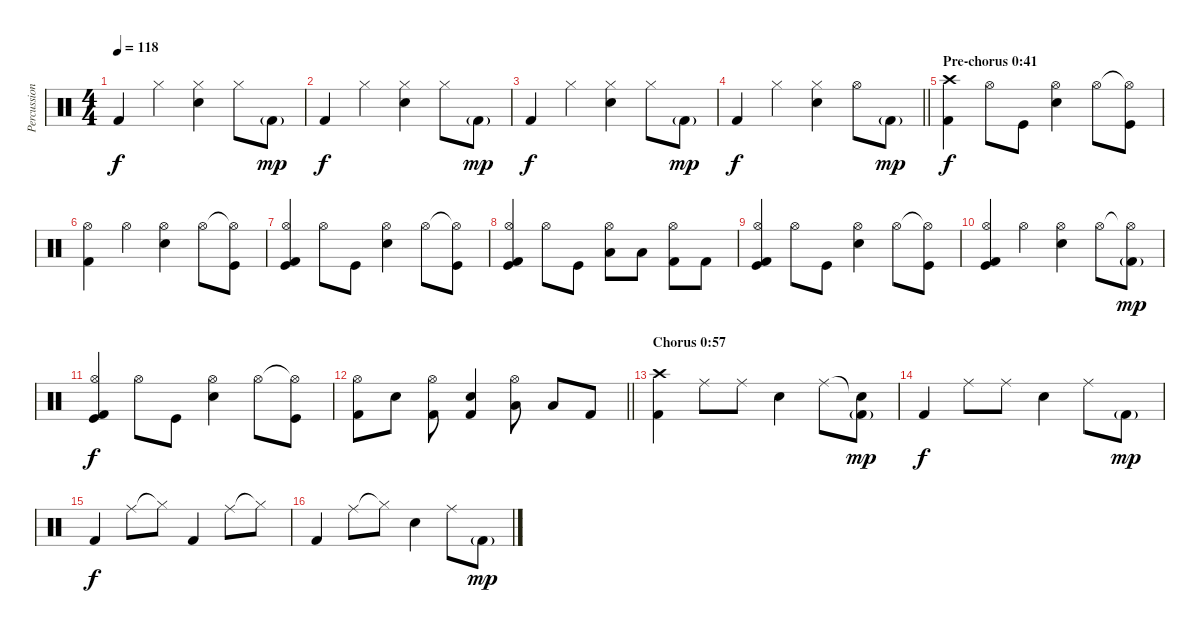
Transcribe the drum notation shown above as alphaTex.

\track ("Percussion" "Percussion") {instrument percussion}
\staff {score}
\articulation defaults
\ts (4 4)
\tempo 118
\clef neutral
\ks c "Kick (hit) 2".4{dy f} "Hi-Hat (closed)".4
("Hi-Hat (closed)" "Electric Snare (hit)").4 "Hi-Hat (closed)".8 "Kick (hit) 2"{g}.8{dy mp} |
"Kick (hit) 2".4{dy f} "Hi-Hat (closed)".4 ("Hi-Hat (closed)" "Electric Snare (hit)").4 "Hi-Hat (closed)".8 "Kick (hit) 2"{g}.8{dy mp} |
"Kick (hit) 2".4{dy f} "Hi-Hat (closed)".4 ("Hi-Hat (closed)" "Electric Snare (hit)").4 "Hi-Hat (closed)".8 "Kick (hit) 2"{g}.8{dy mp} |
\barLineRight lightlight "Kick (hit) 2".4{dy f} "Hi-Hat (closed)".4
("Hi-Hat (closed)" "Electric Snare (hit)").4 "Hi-Hat (open)".8 "Kick (hit) 2"{g}.8{dy mp} |
\section ("" "Pre-chorus 0:41")
("Crash high (hit)" "Kick (hit) 2").4{dy f} "Hi-Hat (open)".8 "Kick (hit)".8 ("Hi-Hat (open)" "Electric Snare (hit)").4 "Hi-Hat (open)".8 ("Hi-Hat (open)"{t} "Kick (hit)").8 |
("Hi-Hat (open)" "Kick (hit) 2").4 "Hi-Hat (open)".4 ("Hi-Hat (open)" "Electric Snare (hit)").4 "Hi-Hat (open)".8 ("Hi-Hat (open)"{t} "Kick (hit)").8 |
("Hi-Hat (open)" "Kick (hit)" "Kick (hit) 2").4 "Hi-Hat (open)".8 "Kick (hit)".8 ("Hi-Hat (open)" "Electric Snare (hit)").4 "Hi-Hat (open)".8 ("Hi-Hat (open)"{t} "Kick (hit)").8 |
("Hi-Hat (open)" "Kick (hit)" "Kick (hit) 2").4 "Hi-Hat (open)".8 "Kick (hit)".8 ("Hi-Hat (open)" "Low Floor Tom (hit)").8 "Low Floor Tom (hit)".8 ("Hi-Hat (open)" "Kick (hit) 2").8 "Kick (hit) 2".8 |
("Hi-Hat (open)" "Kick (hit)" "Kick (hit) 2").4 "Hi-Hat (open)".8 "Kick (hit)".8 ("Hi-Hat (open)" "Electric Snare (hit)").4 "Hi-Hat (open)".8 ("Hi-Hat (open)"{t} "Kick (hit)").8 |
("Hi-Hat (open)" "Kick (hit)" "Kick (hit) 2").4 "Hi-Hat (open)".4 ("Hi-Hat (open)" "Electric Snare (hit)").4 "Hi-Hat (open)".8 ("Hi-Hat (open)"{t} "Kick (hit) 2"{g}).8{dy mp} |
("Hi-Hat (open)" "Kick (hit)" "Kick (hit) 2").4{dy f} "Hi-Hat (open)".8 "Kick (hit)".8 ("Hi-Hat (open)" "Electric Snare (hit)").4 "Hi-Hat (open)".8 ("Hi-Hat (open)"{t} "Kick (hit)").8 |
\barLineRight lightlight
("Hi-Hat (open)" "Kick (hit) 2").8 "Electric Snare (hit)".8 ("Hi-Hat (open)" "Kick (hit) 2").8 ("Electric Snare (hit)" "Kick (hit) 2").4 ("Hi-Hat (open)" "Low Floor Tom (hit)").8 "Low Floor Tom (hit)".8 "Kick (hit) 2".8 |
\section ("" "Chorus 0:57")
("Crash high (hit)" "Kick (hit) 2").4 "Ride (middle)".8 "Ride (middle)".8 "Electric Snare (hit)".4 "Ride (middle)".8 ("Snare (hit)"{t} "Kick (hit) 2"{g}).8{dy mp} |
"Kick (hit) 2".4{dy f} "Ride (middle)".8 "Ride (middle)".8 "Electric Snare (hit)".4 "Ride (middle)".8 "Kick (hit) 2"{g}.8{dy mp} |
"Kick (hit) 2".4{dy f} "Ride (middle)".8 "Hi-Hat (closed)"{t}.8 "Kick (hit) 2".4 "Ride (middle)".8 "Hi-Hat (closed)"{t}.8 |
"Kick (hit) 2".4 "Ride (middle)".8 "Hi-Hat (closed)"{t}.8 "Electric Snare (hit)".4 "Ride (middle)".8 "Kick (hit) 2"{g}.8{dy mp}
